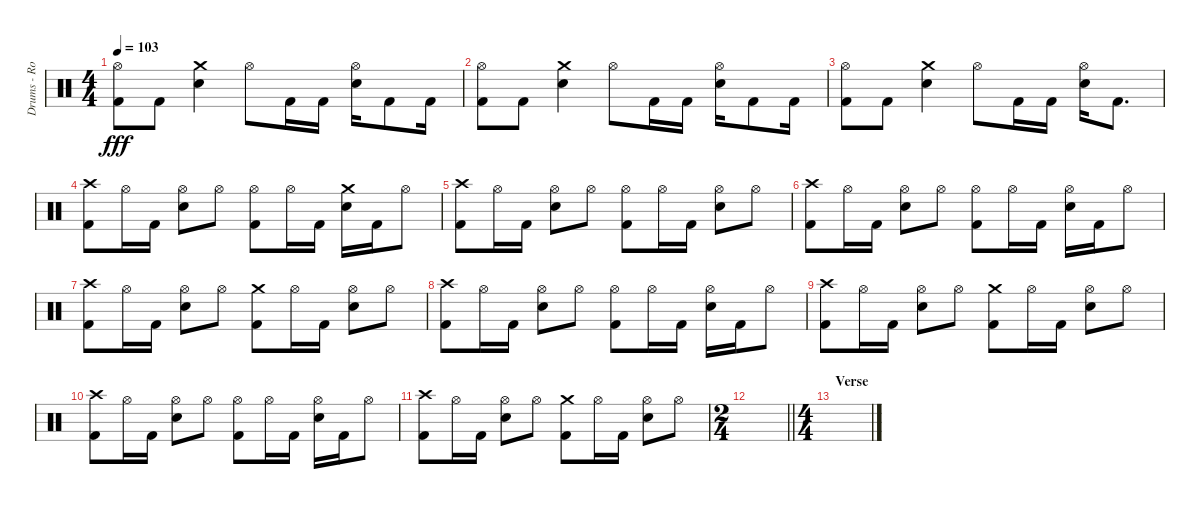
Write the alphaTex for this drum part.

\track ("Drums - Rob Bourdon" "Drums - Ro") {instrument percussion}
\staff {score}
\articulation defaults
\ts (4 4)
\tempo 103
\clef neutral
\ks c
("Hi-Hat (open)" "Kick (hit) 2").8{dy fff} "Kick (hit) 2".8 ("Crash medium (hit)" "Snare (hit) 2").4 "Hi-Hat (open)".8 "Kick (hit) 2".16 "Kick (hit) 2".16 ("Hi-Hat (open)" "Snare (hit) 2").16 "Kick (hit) 2".8 "Kick (hit) 2".16 |
("Hi-Hat (open)" "Kick (hit) 2").8 "Kick (hit) 2".8 ("Crash medium (hit)" "Snare (hit) 2").4 "Hi-Hat (open)".8 "Kick (hit) 2".16 "Kick (hit) 2".16 ("Hi-Hat (open)" "Snare (hit) 2").16 "Kick (hit) 2".8 "Kick (hit) 2".16 |
("Hi-Hat (open)" "Kick (hit) 2").8 "Kick (hit) 2".8 ("Crash medium (hit)" "Snare (hit) 2").4 "Hi-Hat (open)".8 "Kick (hit) 2".16 "Kick (hit) 2".16 ("Hi-Hat (open)" "Snare (hit) 2").16 "Kick (hit) 2".8{d} |
("Crash high (hit)" "Kick (hit) 2").8 "Hi-Hat (open)".16 "Kick (hit) 2".16 ("Hi-Hat (open)" "Snare (hit) 2").8 "Hi-Hat (open)".8 ("Hi-Hat (open)" "Kick (hit) 2").8 "Hi-Hat (open)".16 "Kick (hit) 2".16 ("Crash medium (hit)" "Snare (hit) 2").16 "Kick (hit) 2".16 "Hi-Hat (open)".8 |
("Crash high (hit)" "Kick (hit) 2").8 "Hi-Hat (open)".16 "Kick (hit) 2".16 ("Hi-Hat (open)" "Snare (hit) 2").8 "Hi-Hat (open)".8 ("Hi-Hat (open)" "Kick (hit) 2").8 "Hi-Hat (open)".16 "Kick (hit) 2".16 ("Hi-Hat (open)" "Snare (hit) 2").8 "Hi-Hat (open)".8 |
("Crash high (hit)" "Kick (hit) 2").8 "Hi-Hat (open)".16 "Kick (hit) 2".16 ("Hi-Hat (open)" "Snare (hit) 2").8 "Hi-Hat (open)".8 ("Hi-Hat (open)" "Kick (hit) 2").8 "Hi-Hat (open)".16 "Kick (hit) 2".16 ("Hi-Hat (open)" "Snare (hit) 2").16 "Kick (hit) 2".16 "Hi-Hat (open)".8 |
("Crash high (hit)" "Kick (hit) 2").8 "Hi-Hat (open)".16 "Kick (hit) 2".16 ("Hi-Hat (open)" "Snare (hit) 2").8 "Hi-Hat (open)".8 ("Crash medium (hit)" "Kick (hit) 2").8 "Hi-Hat (open)".16 "Kick (hit) 2".16 ("Hi-Hat (open)" "Snare (hit) 2").8 "Hi-Hat (open)".8 |
("Crash high (hit)" "Kick (hit) 2").8 "Hi-Hat (open)".16 "Kick (hit) 2".16 ("Hi-Hat (open)" "Snare (hit) 2").8 "Hi-Hat (open)".8 ("Hi-Hat (open)" "Kick (hit) 2").8 "Hi-Hat (open)".16 "Kick (hit) 2".16 ("Hi-Hat (open)" "Snare (hit) 2").16 "Kick (hit) 2".16 "Hi-Hat (open)".8 |
("Crash high (hit)" "Kick (hit) 2").8 "Hi-Hat (open)".16 "Kick (hit) 2".16 ("Hi-Hat (open)" "Snare (hit) 2").8 "Hi-Hat (open)".8 ("Crash medium (hit)" "Kick (hit) 2").8 "Hi-Hat (open)".16 "Kick (hit) 2".16 ("Hi-Hat (open)" "Snare (hit) 2").8 "Hi-Hat (open)".8 |
("Crash high (hit)" "Kick (hit) 2").8 "Hi-Hat (open)".16 "Kick (hit) 2".16 ("Hi-Hat (open)" "Snare (hit) 2").8 "Hi-Hat (open)".8 ("Hi-Hat (open)" "Kick (hit) 2").8 "Hi-Hat (open)".16 "Kick (hit) 2".16 ("Hi-Hat (open)" "Snare (hit) 2").16 "Kick (hit) 2".16 "Hi-Hat (open)".8 |
("Crash high (hit)" "Kick (hit) 2").8 "Hi-Hat (open)".16 "Kick (hit) 2".16 ("Hi-Hat (open)" "Snare (hit) 2").8 "Hi-Hat (open)".8 ("Crash medium (hit)" "Kick (hit) 2").8 "Hi-Hat (open)".16 "Kick (hit) 2".16 ("Hi-Hat (open)" "Snare (hit) 2").8 "Hi-Hat (open)".8 |
\ts (2 4)
\barLineRight lightlight
|
\ts (4 4)
\section ("" "Verse")
